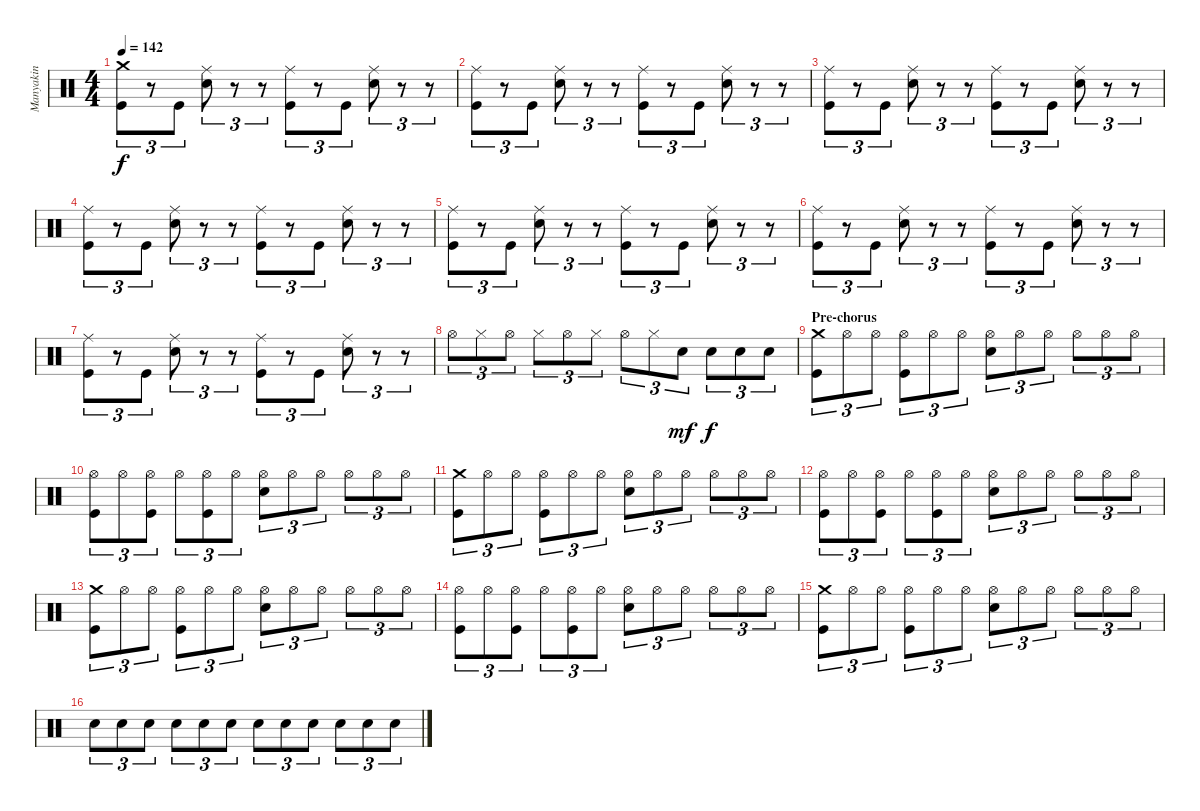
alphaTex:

\track ("Manyakin" "Manyakin") {instrument percussion}
\staff {score}
\articulation defaults
\ts (4 4)
\tempo 142
\clef neutral
\ks c
("Kick (hit)" "Crash medium (hit)").8{tu (3 2) dy f} r.8{tu (3 2)} "Kick (hit)".8{tu (3 2)} ("Electric Snare (hit)" "Ride (middle)").8{tu (3 2)} r.8{tu (3 2)} r.8{tu (3 2)} ("Kick (hit)" "Ride (middle)").8{tu (3 2)} r.8{tu (3 2)} "Kick (hit)".8{tu (3 2)} ("Electric Snare (hit)" "Ride (middle)").8{tu (3 2)} r.8{tu (3 2)} r.8{tu (3 2)} |
("Kick (hit)" "Ride (middle)").8{tu (3 2)} r.8{tu (3 2)} "Kick (hit)".8{tu (3 2)} ("Electric Snare (hit)" "Ride (middle)").8{tu (3 2)} r.8{tu (3 2)} r.8{tu (3 2)} ("Kick (hit)" "Ride (middle)").8{tu (3 2)} r.8{tu (3 2)} "Kick (hit)".8{tu (3 2)} ("Electric Snare (hit)" "Ride (middle)").8{tu (3 2)} r.8{tu (3 2)} r.8{tu (3 2)} |
("Kick (hit)" "Ride (middle)").8{tu (3 2)} r.8{tu (3 2)} "Kick (hit)".8{tu (3 2)} ("Electric Snare (hit)" "Ride (middle)").8{tu (3 2)} r.8{tu (3 2)} r.8{tu (3 2)} ("Kick (hit)" "Ride (middle)").8{tu (3 2)} r.8{tu (3 2)} "Kick (hit)".8{tu (3 2)} ("Electric Snare (hit)" "Ride (middle)").8{tu (3 2)} r.8{tu (3 2)} r.8{tu (3 2)} |
("Kick (hit)" "Ride (middle)").8{tu (3 2)} r.8{tu (3 2)} "Kick (hit)".8{tu (3 2)} ("Electric Snare (hit)" "Ride (middle)").8{tu (3 2)} r.8{tu (3 2)} r.8{tu (3 2)} ("Kick (hit)" "Ride (middle)").8{tu (3 2)} r.8{tu (3 2)} "Kick (hit)".8{tu (3 2)} ("Electric Snare (hit)" "Ride (middle)").8{tu (3 2)} r.8{tu (3 2)} r.8{tu (3 2)} |
("Kick (hit)" "Ride (middle)").8{tu (3 2)} r.8{tu (3 2)} "Kick (hit)".8{tu (3 2)} ("Electric Snare (hit)" "Ride (middle)").8{tu (3 2)} r.8{tu (3 2)} r.8{tu (3 2)} ("Kick (hit)" "Ride (middle)").8{tu (3 2)} r.8{tu (3 2)} "Kick (hit)".8{tu (3 2)} ("Electric Snare (hit)" "Ride (middle)").8{tu (3 2)} r.8{tu (3 2)} r.8{tu (3 2)} |
("Kick (hit)" "Ride (middle)").8{tu (3 2)} r.8{tu (3 2)} "Kick (hit)".8{tu (3 2)} ("Electric Snare (hit)" "Ride (middle)").8{tu (3 2)} r.8{tu (3 2)} r.8{tu (3 2)} ("Kick (hit)" "Ride (middle)").8{tu (3 2)} r.8{tu (3 2)} "Kick (hit)".8{tu (3 2)} ("Electric Snare (hit)" "Ride (middle)").8{tu (3 2)} r.8{tu (3 2)} r.8{tu (3 2)} |
("Kick (hit)" "Ride (middle)").8{tu (3 2)} r.8{tu (3 2)} "Kick (hit)".8{tu (3 2)} ("Electric Snare (hit)" "Ride (middle)").8{tu (3 2)} r.8{tu (3 2)} r.8{tu (3 2)} ("Kick (hit)" "Ride (middle)").8{tu (3 2)} r.8{tu (3 2)} "Kick (hit)".8{tu (3 2)} ("Electric Snare (hit)" "Ride (middle)").8{tu (3 2)} r.8{tu (3 2)} r.8{tu (3 2)} |
"Hi-Hat (open)".8{tu (3 2)} "Hi-Hat (closed)".8{tu (3 2)} "Hi-Hat (open)".8{tu (3 2)} "Hi-Hat (closed)".8{tu (3 2)} "Hi-Hat (open)".8{tu (3 2)} "Hi-Hat (closed)".8{tu (3 2)} "Hi-Hat (open)".8{tu (3 2)} "Hi-Hat (closed)".8{tu (3 2)} "Electric Snare (hit)".8{tu (3 2) dy mf} "Electric Snare (hit)".8{tu (3 2) dy f} "Electric Snare (hit)".8{tu (3 2)} "Electric Snare (hit)".8{tu (3 2)} |
\section ("" "Pre-chorus")
("Kick (hit)" "Crash medium (hit)").8{tu (3 2)} "Hi-Hat (open)".8{tu (3 2)} "Hi-Hat (open)".8{tu (3 2)} ("Kick (hit)" "Hi-Hat (open)").8{tu (3 2)} "Hi-Hat (open)".8{tu (3 2)} "Hi-Hat (open)".8{tu (3 2)} ("Electric Snare (hit)" "Hi-Hat (open)").8{tu (3 2)} "Hi-Hat (open)".8{tu (3 2)} "Hi-Hat (open)".8{tu (3 2)} "Hi-Hat (open)".8{tu (3 2)} "Hi-Hat (open)".8{tu (3 2)} "Hi-Hat (open)".8{tu (3 2)} |
("Kick (hit)" "Hi-Hat (open)").8{tu (3 2)} "Hi-Hat (open)".8{tu (3 2)} ("Kick (hit)" "Hi-Hat (open)").8{tu (3 2)} "Hi-Hat (open)".8{tu (3 2)} ("Kick (hit)" "Hi-Hat (open)").8{tu (3 2)} "Hi-Hat (open)".8{tu (3 2)} ("Electric Snare (hit)" "Hi-Hat (open)").8{tu (3 2)} "Hi-Hat (open)".8{tu (3 2)} "Hi-Hat (open)".8{tu (3 2)} "Hi-Hat (open)".8{tu (3 2)} "Hi-Hat (open)".8{tu (3 2)} "Hi-Hat (open)".8{tu (3 2)} |
("Kick (hit)" "Crash medium (hit)").8{tu (3 2)} "Hi-Hat (open)".8{tu (3 2)} "Hi-Hat (open)".8{tu (3 2)} ("Kick (hit)" "Hi-Hat (open)").8{tu (3 2)} "Hi-Hat (open)".8{tu (3 2)} "Hi-Hat (open)".8{tu (3 2)} ("Electric Snare (hit)" "Hi-Hat (open)").8{tu (3 2)} "Hi-Hat (open)".8{tu (3 2)} "Hi-Hat (open)".8{tu (3 2)} "Hi-Hat (open)".8{tu (3 2)} "Hi-Hat (open)".8{tu (3 2)} "Hi-Hat (open)".8{tu (3 2)} |
("Kick (hit)" "Hi-Hat (open)").8{tu (3 2)} "Hi-Hat (open)".8{tu (3 2)} ("Kick (hit)" "Hi-Hat (open)").8{tu (3 2)} "Hi-Hat (open)".8{tu (3 2)} ("Kick (hit)" "Hi-Hat (open)").8{tu (3 2)} "Hi-Hat (open)".8{tu (3 2)} ("Electric Snare (hit)" "Hi-Hat (open)").8{tu (3 2)} "Hi-Hat (open)".8{tu (3 2)} "Hi-Hat (open)".8{tu (3 2)} "Hi-Hat (open)".8{tu (3 2)} "Hi-Hat (open)".8{tu (3 2)} "Hi-Hat (open)".8{tu (3 2)} |
("Kick (hit)" "Crash medium (hit)").8{tu (3 2)} "Hi-Hat (open)".8{tu (3 2)} "Hi-Hat (open)".8{tu (3 2)} ("Kick (hit)" "Hi-Hat (open)").8{tu (3 2)} "Hi-Hat (open)".8{tu (3 2)} "Hi-Hat (open)".8{tu (3 2)} ("Electric Snare (hit)" "Hi-Hat (open)").8{tu (3 2)} "Hi-Hat (open)".8{tu (3 2)} "Hi-Hat (open)".8{tu (3 2)} "Hi-Hat (open)".8{tu (3 2)} "Hi-Hat (open)".8{tu (3 2)} "Hi-Hat (open)".8{tu (3 2)} |
("Kick (hit)" "Hi-Hat (open)").8{tu (3 2)} "Hi-Hat (open)".8{tu (3 2)} ("Kick (hit)" "Hi-Hat (open)").8{tu (3 2)} "Hi-Hat (open)".8{tu (3 2)} ("Kick (hit)" "Hi-Hat (open)").8{tu (3 2)} "Hi-Hat (open)".8{tu (3 2)} ("Electric Snare (hit)" "Hi-Hat (open)").8{tu (3 2)} "Hi-Hat (open)".8{tu (3 2)} "Hi-Hat (open)".8{tu (3 2)} "Hi-Hat (open)".8{tu (3 2)} "Hi-Hat (open)".8{tu (3 2)} "Hi-Hat (open)".8{tu (3 2)} |
("Kick (hit)" "Crash medium (hit)").8{tu (3 2)} "Hi-Hat (open)".8{tu (3 2)} "Hi-Hat (open)".8{tu (3 2)} ("Kick (hit)" "Hi-Hat (open)").8{tu (3 2)} "Hi-Hat (open)".8{tu (3 2)} "Hi-Hat (open)".8{tu (3 2)} ("Electric Snare (hit)" "Hi-Hat (open)").8{tu (3 2)} "Hi-Hat (open)".8{tu (3 2)} "Hi-Hat (open)".8{tu (3 2)} "Hi-Hat (open)".8{tu (3 2)} "Hi-Hat (open)".8{tu (3 2)} "Hi-Hat (open)".8{tu (3 2)} |
"Electric Snare (hit)".8{tu (3 2)} "Electric Snare (hit)".8{tu (3 2)} "Electric Snare (hit)".8{tu (3 2)} "Electric Snare (hit)".8{tu (3 2)} "Electric Snare (hit)".8{tu (3 2)} "Electric Snare (hit)".8{tu (3 2)} "Electric Snare (hit)".8{tu (3 2)} "Electric Snare (hit)".8{tu (3 2)} "Electric Snare (hit)".8{tu (3 2)} "Electric Snare (hit)".8{tu (3 2)} "Electric Snare (hit)".8{tu (3 2)} "Electric Snare (hit)".8{tu (3 2)}
